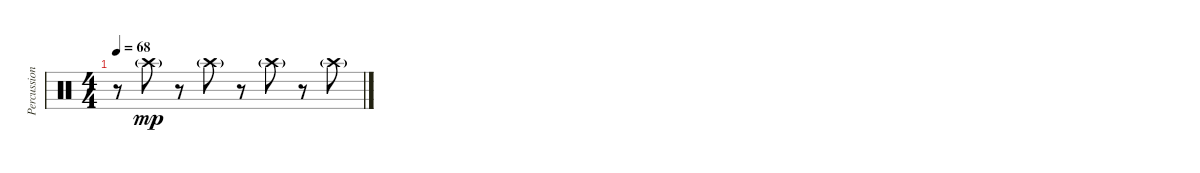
\track ("Percussions" "Percussion") {instrument percussion}
\staff {score}
\articulation defaults
\ts (4 4)
\tempo 68
\clef neutral
\ks c
r.8{dy mp} "Crash high (hit)"{g}.8 r.8 "Crash high (hit)"{g}.8 r.8 "Crash high (hit)"{g}.8 r.8 "Crash high (hit)"{g}.8
